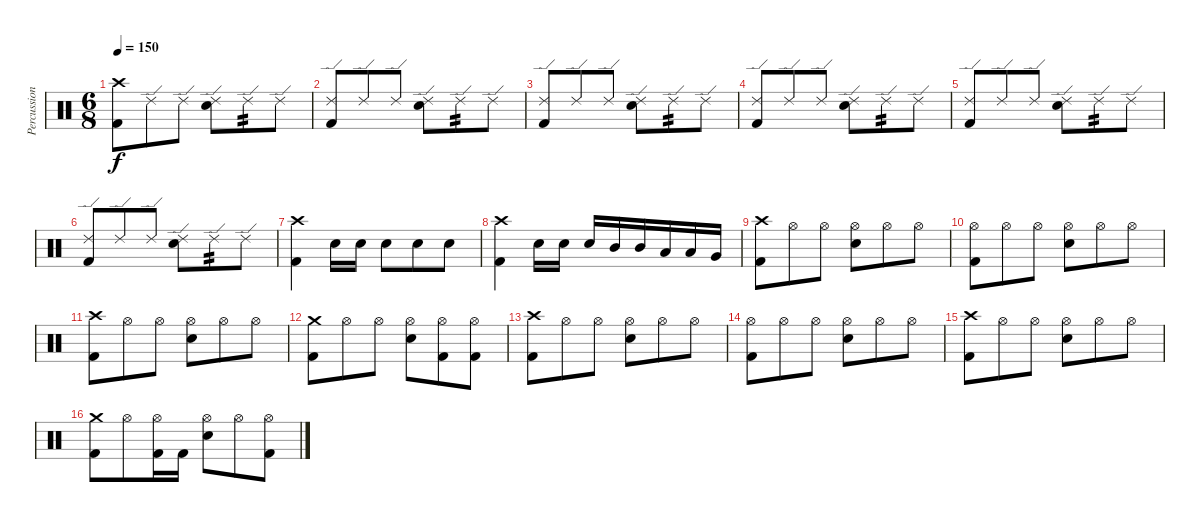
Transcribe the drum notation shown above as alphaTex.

\track ("Percussion" "Percussion") {instrument percussion}
\staff {score}
\articulation defaults
\ts (6 8)
\tempo 150
\clef neutral
\ks c
("Crash high (hit)" "Kick (hit) 2").8{dy f} "Ride (edge) 2".8 "Ride (edge) 2".8 ("Ride (edge) 2" "Electric Snare (hit)").8 "Ride (edge) 2".8{tp 2} "Ride (edge) 2".8 |
("Ride (edge) 2" "Kick (hit) 2").8 "Ride (edge) 2".8 "Ride (edge) 2".8 ("Ride (edge) 2" "Electric Snare (hit)").8 "Ride (edge) 2".8{tp 2} "Ride (edge) 2".8 |
("Ride (edge) 2" "Kick (hit) 2").8 "Ride (edge) 2".8 "Ride (edge) 2".8 ("Ride (edge) 2" "Electric Snare (hit)").8 "Ride (edge) 2".8{tp 2} "Ride (edge) 2".8 |
("Ride (edge) 2" "Kick (hit) 2").8 "Ride (edge) 2".8 "Ride (edge) 2".8 ("Ride (edge) 2" "Electric Snare (hit)").8 "Ride (edge) 2".8{tp 2} "Ride (edge) 2".8 |
("Ride (edge) 2" "Kick (hit) 2").8 "Ride (edge) 2".8 "Ride (edge) 2".8 ("Ride (edge) 2" "Electric Snare (hit)").8 "Ride (edge) 2".8{tp 2} "Ride (edge) 2".8 |
("Ride (edge) 2" "Kick (hit) 2").8 "Ride (edge) 2".8 "Ride (edge) 2".8 ("Ride (edge) 2" "Electric Snare (hit)").8 "Ride (edge) 2".8{tp 2} "Ride (edge) 2".8 |
("Crash high (hit)" "Kick (hit) 2").4 "Electric Snare (hit)".16 "Electric Snare (hit)".16 "Electric Snare (hit)".8 "Electric Snare (hit)".8 "Electric Snare (hit)".8 |
("Crash high (hit)" "Kick (hit) 2").4 "Electric Snare (hit)".16 "Electric Snare (hit)".16 "Electric Snare (hit)".16 "Mid Tom (hit)".16 "Mid Tom (hit)".16 "Low Tom (hit)".16 "Low Tom (hit)".16 "Very Low Tom (hit)".16 |
("Crash high (hit)" "Kick (hit) 2").8 "Hi-Hat (open)".8 "Hi-Hat (open)".8 ("Hi-Hat (open)" "Electric Snare (hit)").8 "Hi-Hat (open)".8 "Hi-Hat (open)".8 |
("Hi-Hat (open)" "Kick (hit) 2").8 "Hi-Hat (open)".8 "Hi-Hat (open)".8 ("Hi-Hat (open)" "Electric Snare (hit)").8 "Hi-Hat (open)".8 "Hi-Hat (open)".8 |
("Crash high (hit)" "Kick (hit) 2").8 "Hi-Hat (open)".8 "Hi-Hat (open)".8 ("Hi-Hat (open)" "Electric Snare (hit)").8 "Hi-Hat (open)".8 "Hi-Hat (open)".8 |
("Crash medium (hit)" "Kick (hit) 2").8 "Hi-Hat (open)".8 "Hi-Hat (open)".8 ("Hi-Hat (open)" "Electric Snare (hit)").8 ("Hi-Hat (open)" "Kick (hit) 2").8 ("Hi-Hat (open)" "Kick (hit) 2").8 |
("Crash high (hit)" "Kick (hit) 2").8 "Hi-Hat (open)".8 "Hi-Hat (open)".8 ("Hi-Hat (open)" "Electric Snare (hit)").8 "Hi-Hat (open)".8 "Hi-Hat (open)".8 |
("Hi-Hat (open)" "Kick (hit) 2").8 "Hi-Hat (open)".8 "Hi-Hat (open)".8 ("Hi-Hat (open)" "Electric Snare (hit)").8 "Hi-Hat (open)".8 "Hi-Hat (open)".8 |
("Crash high (hit)" "Kick (hit) 2").8 "Hi-Hat (open)".8 "Hi-Hat (open)".8 ("Hi-Hat (open)" "Electric Snare (hit)").8 "Hi-Hat (open)".8 "Hi-Hat (open)".8 |
("Crash medium (hit)" "Kick (hit) 2").8 "Hi-Hat (open)".8 ("Hi-Hat (open)" "Kick (hit) 2").16 "Kick (hit) 2".16 ("Hi-Hat (open)" "Electric Snare (hit)").8 "Hi-Hat (open)".8 ("Hi-Hat (open)" "Kick (hit) 2").8
